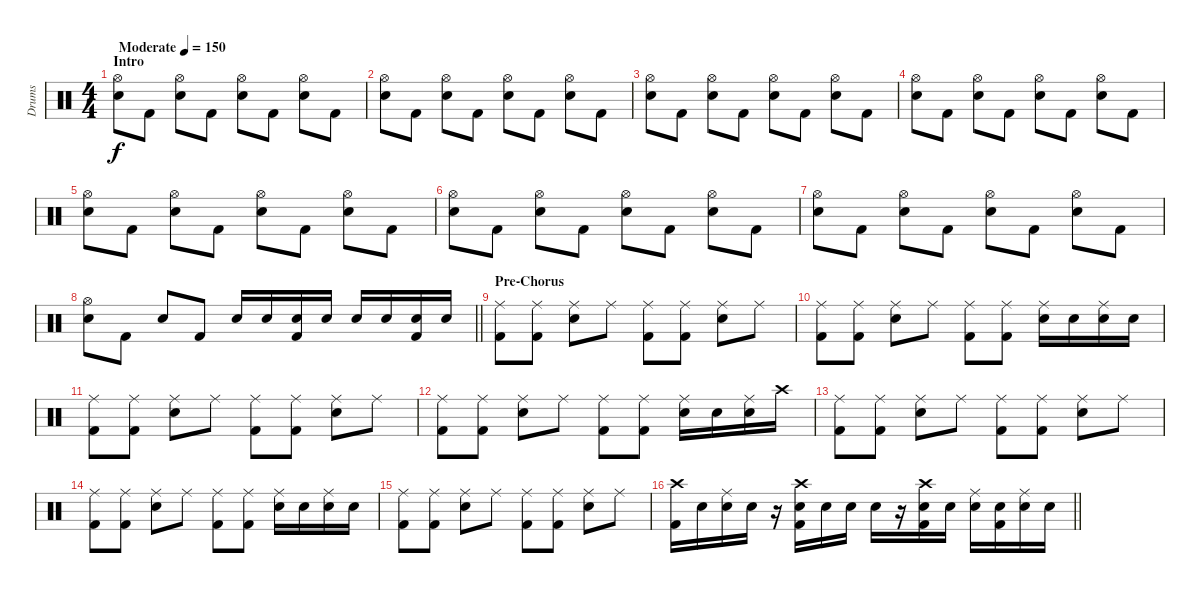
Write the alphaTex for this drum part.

\track ("Drums" "Drums") {instrument percussion}
\staff {score}
\articulation defaults
\ts (4 4)
\section ("" "Intro")
\tempo (150 "Moderate")
\clef neutral
\ks c
("Hi-Hat (open)" "Snare (hit) 2").8{dy f} "Kick (hit) 2".8 ("Hi-Hat (open)" "Snare (hit) 2").8 "Kick (hit) 2".8 ("Hi-Hat (open)" "Snare (hit) 2").8 "Kick (hit) 2".8 ("Hi-Hat (open)" "Snare (hit) 2").8 "Kick (hit) 2".8 |
("Hi-Hat (open)" "Snare (hit) 2").8 "Kick (hit) 2".8 ("Hi-Hat (open)" "Snare (hit) 2").8 "Kick (hit) 2".8 ("Hi-Hat (open)" "Snare (hit) 2").8 "Kick (hit) 2".8 ("Hi-Hat (open)" "Snare (hit) 2").8 "Kick (hit) 2".8 |
("Hi-Hat (open)" "Snare (hit) 2").8 "Kick (hit) 2".8 ("Hi-Hat (open)" "Snare (hit) 2").8 "Kick (hit) 2".8 ("Hi-Hat (open)" "Snare (hit) 2").8 "Kick (hit) 2".8 ("Hi-Hat (open)" "Snare (hit) 2").8 "Kick (hit) 2".8 |
("Hi-Hat (open)" "Snare (hit) 2").8 "Kick (hit) 2".8 ("Hi-Hat (open)" "Snare (hit) 2").8 "Kick (hit) 2".8 ("Hi-Hat (open)" "Snare (hit) 2").8 "Kick (hit) 2".8 ("Hi-Hat (open)" "Snare (hit) 2").8 "Kick (hit) 2".8 |
("Hi-Hat (open)" "Snare (hit) 2").8 "Kick (hit) 2".8 ("Hi-Hat (open)" "Snare (hit) 2").8 "Kick (hit) 2".8 ("Hi-Hat (open)" "Snare (hit) 2").8 "Kick (hit) 2".8 ("Hi-Hat (open)" "Snare (hit) 2").8 "Kick (hit) 2".8 |
("Hi-Hat (open)" "Snare (hit) 2").8 "Kick (hit) 2".8 ("Hi-Hat (open)" "Snare (hit) 2").8 "Kick (hit) 2".8 ("Hi-Hat (open)" "Snare (hit) 2").8 "Kick (hit) 2".8 ("Hi-Hat (open)" "Snare (hit) 2").8 "Kick (hit) 2".8 |
("Hi-Hat (open)" "Snare (hit) 2").8 "Kick (hit) 2".8 ("Hi-Hat (open)" "Snare (hit) 2").8 "Kick (hit) 2".8 ("Hi-Hat (open)" "Snare (hit) 2").8 "Kick (hit) 2".8 ("Hi-Hat (open)" "Snare (hit) 2").8 "Kick (hit) 2".8 |
\barLineRight lightlight
("Hi-Hat (open)" "Snare (hit) 2").8 "Kick (hit) 2".8 "Snare (hit) 2".8 "Kick (hit) 2".8 "Snare (hit) 2".16 "Snare (hit) 2".16 ("Snare (hit) 2" "Kick (hit) 2").16 "Snare (hit) 2".16 "Snare (hit) 2".16 "Snare (hit) 2".16 ("Snare (hit) 2" "Kick (hit) 2").16 "Snare (hit) 2".16 |
\section ("" "Pre-Chorus")
("Ride (middle)" "Kick (hit) 2").8 ("Ride (middle)" "Kick (hit) 2").8 ("Ride (middle)" "Snare (hit) 2").8 "Ride (middle)".8 ("Ride (middle)" "Kick (hit) 2").8 ("Ride (middle)" "Kick (hit) 2").8 ("Ride (middle)" "Snare (hit) 2").8 "Ride (middle)".8 |
("Ride (middle)" "Kick (hit) 2").8 ("Ride (middle)" "Kick (hit) 2").8 ("Ride (middle)" "Snare (hit) 2").8 "Ride (middle)".8 ("Ride (middle)" "Kick (hit) 2").8 ("Ride (middle)" "Kick (hit) 2").8 ("Ride (middle)" "Snare (hit) 2").16 "Snare (hit) 2".16 ("Ride (middle)" "Snare (hit) 2").16 "Snare (hit) 2".16 |
("Ride (middle)" "Kick (hit) 2").8 ("Ride (middle)" "Kick (hit) 2").8 ("Ride (middle)" "Snare (hit) 2").8 "Ride (middle)".8 ("Ride (middle)" "Kick (hit) 2").8 ("Ride (middle)" "Kick (hit) 2").8 ("Ride (middle)" "Snare (hit) 2").8 "Ride (middle)".8 |
("Ride (middle)" "Kick (hit) 2").8 ("Ride (middle)" "Kick (hit) 2").8 ("Ride (middle)" "Snare (hit) 2").8 "Ride (middle)".8 ("Ride (middle)" "Kick (hit) 2").8 ("Ride (middle)" "Kick (hit) 2").8 ("Ride (middle)" "Snare (hit) 2").16 "Snare (hit) 2".16 ("Ride (middle)" "Snare (hit) 2").16 "Crash high (hit)".16 |
("Ride (middle)" "Kick (hit) 2").8 ("Ride (middle)" "Kick (hit) 2").8 ("Ride (middle)" "Snare (hit) 2").8 "Ride (middle)".8 ("Ride (middle)" "Kick (hit) 2").8 ("Ride (middle)" "Kick (hit) 2").8 ("Ride (middle)" "Snare (hit) 2").8 "Ride (middle)".8 |
("Ride (middle)" "Kick (hit) 2").8 ("Ride (middle)" "Kick (hit) 2").8 ("Ride (middle)" "Snare (hit) 2").8 "Ride (middle)".8 ("Ride (middle)" "Kick (hit) 2").8 ("Ride (middle)" "Kick (hit) 2").8 ("Ride (middle)" "Snare (hit) 2").16 "Snare (hit) 2".16 ("Ride (middle)" "Snare (hit) 2").16 "Snare (hit) 2".16 |
("Ride (middle)" "Kick (hit) 2").8 ("Ride (middle)" "Kick (hit) 2").8 ("Ride (middle)" "Snare (hit) 2").8 "Ride (middle)".8 ("Ride (middle)" "Kick (hit) 2").8 ("Ride (middle)" "Kick (hit) 2").8 ("Ride (middle)" "Snare (hit) 2").8 "Ride (middle)".8 |
\barLineRight lightlight
("Crash high (hit)" "Kick (hit) 2").16 "Snare (hit) 2".16 ("Ride (middle)" "Snare (hit) 2").16 "Snare (hit) 2".16 r.16 ("Crash high (hit)" "Snare (hit) 2" "Kick (hit) 2").16 "Snare (hit) 2".16 "Snare (hit) 2".16 "Snare (hit) 2".16 r.16 ("Crash high (hit)" "Snare (hit) 2" "Kick (hit) 2").16 "Snare (hit) 2".16 ("Ride (middle)" "Snare (hit) 2").16 ("Snare (hit) 2" "Kick (hit) 2").16 ("Ride (middle)" "Snare (hit) 2").16 "Snare (hit) 2".16
